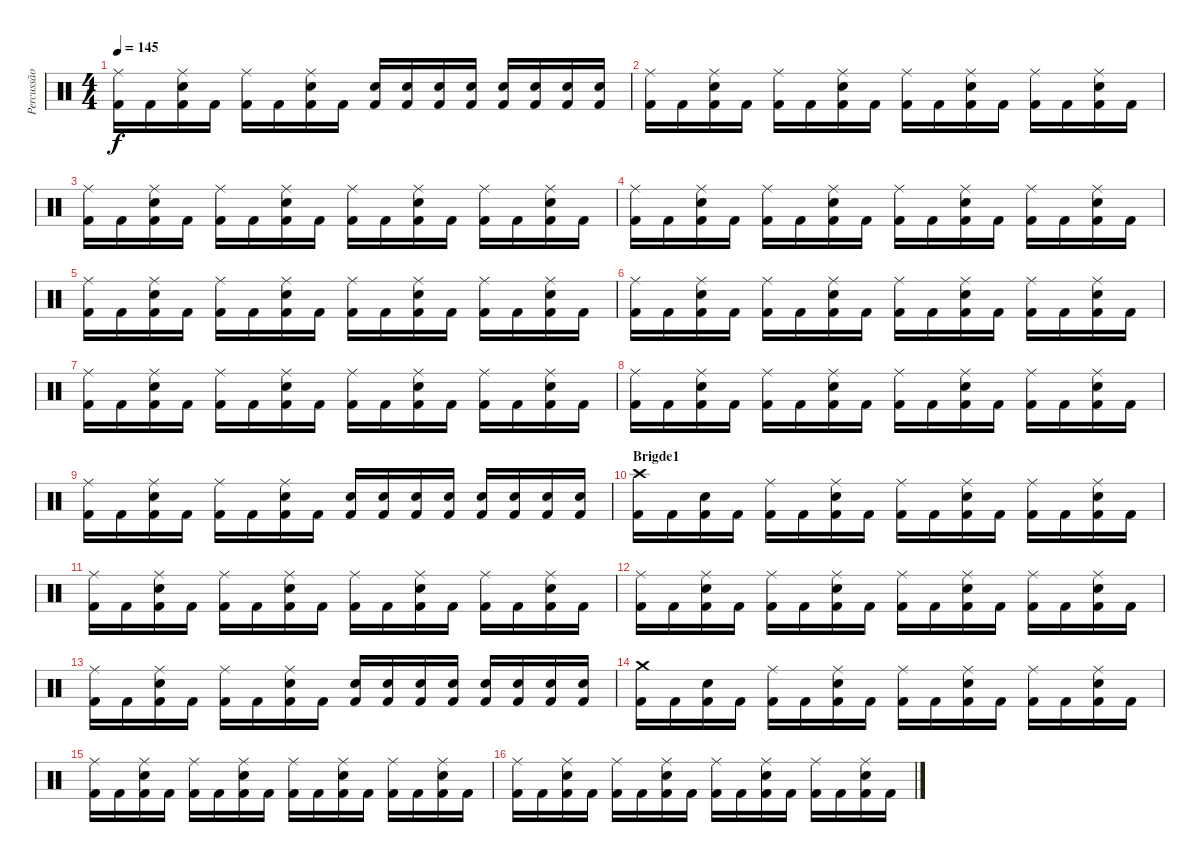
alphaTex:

\track ("Percussão" "Percussão") {instrument percussion}
\staff {score}
\articulation defaults
\ts (4 4)
\tempo 145
\clef neutral
\ks c
("Kick (hit) 2" "Ride (middle)").16{dy f} "Kick (hit) 2".16 ("Kick (hit) 2" "Snare (hit) 2" "Ride (middle)").16 "Kick (hit) 2".16 ("Kick (hit) 2" "Ride (middle)").16 "Kick (hit) 2".16 ("Kick (hit) 2" "Snare (hit) 2" "Ride (middle)").16 "Kick (hit) 2".16 ("Kick (hit) 2" "Snare (hit) 2").16 ("Kick (hit) 2" "Snare (hit) 2").16 ("Kick (hit) 2" "Snare (hit) 2").16 ("Kick (hit) 2" "Snare (hit) 2").16 ("Kick (hit) 2" "Snare (hit) 2").16 ("Kick (hit) 2" "Snare (hit) 2").16 ("Kick (hit) 2" "Snare (hit) 2").16 ("Kick (hit) 2" "Snare (hit) 2").16 |
("Kick (hit) 2" "Ride (middle)").16 "Kick (hit) 2".16 ("Kick (hit) 2" "Snare (hit) 2" "Ride (middle)").16 "Kick (hit) 2".16 ("Kick (hit) 2" "Ride (middle)").16 "Kick (hit) 2".16 ("Kick (hit) 2" "Snare (hit) 2" "Ride (middle)").16 "Kick (hit) 2".16 ("Kick (hit) 2" "Ride (middle)").16 "Kick (hit) 2".16 ("Kick (hit) 2" "Snare (hit) 2" "Ride (middle)").16 "Kick (hit) 2".16 ("Kick (hit) 2" "Ride (middle)").16 "Kick (hit) 2".16 ("Kick (hit) 2" "Snare (hit) 2" "Ride (middle)").16 "Kick (hit) 2".16 |
("Kick (hit) 2" "Ride (middle)").16 "Kick (hit) 2".16 ("Kick (hit) 2" "Snare (hit) 2" "Ride (middle)").16 "Kick (hit) 2".16 ("Kick (hit) 2" "Ride (middle)").16 "Kick (hit) 2".16 ("Kick (hit) 2" "Snare (hit) 2" "Ride (middle)").16 "Kick (hit) 2".16 ("Kick (hit) 2" "Ride (middle)").16 "Kick (hit) 2".16 ("Kick (hit) 2" "Snare (hit) 2" "Ride (middle)").16 "Kick (hit) 2".16 ("Kick (hit) 2" "Ride (middle)").16 "Kick (hit) 2".16 ("Kick (hit) 2" "Snare (hit) 2" "Ride (middle)").16 "Kick (hit) 2".16 |
("Kick (hit) 2" "Ride (middle)").16 "Kick (hit) 2".16 ("Kick (hit) 2" "Snare (hit) 2" "Ride (middle)").16 "Kick (hit) 2".16 ("Kick (hit) 2" "Ride (middle)").16 "Kick (hit) 2".16 ("Kick (hit) 2" "Snare (hit) 2" "Ride (middle)").16 "Kick (hit) 2".16 ("Kick (hit) 2" "Ride (middle)").16 "Kick (hit) 2".16 ("Kick (hit) 2" "Snare (hit) 2" "Ride (middle)").16 "Kick (hit) 2".16 ("Kick (hit) 2" "Ride (middle)").16 "Kick (hit) 2".16 ("Kick (hit) 2" "Snare (hit) 2" "Ride (middle)").16 "Kick (hit) 2".16 |
("Kick (hit) 2" "Ride (middle)").16 "Kick (hit) 2".16 ("Kick (hit) 2" "Snare (hit) 2" "Ride (middle)").16 "Kick (hit) 2".16 ("Kick (hit) 2" "Ride (middle)").16 "Kick (hit) 2".16 ("Kick (hit) 2" "Snare (hit) 2" "Ride (middle)").16 "Kick (hit) 2".16 ("Kick (hit) 2" "Ride (middle)").16 "Kick (hit) 2".16 ("Kick (hit) 2" "Snare (hit) 2" "Ride (middle)").16 "Kick (hit) 2".16 ("Kick (hit) 2" "Ride (middle)").16 "Kick (hit) 2".16 ("Kick (hit) 2" "Snare (hit) 2" "Ride (middle)").16 "Kick (hit) 2".16 |
("Kick (hit) 2" "Ride (middle)").16 "Kick (hit) 2".16 ("Kick (hit) 2" "Snare (hit) 2" "Ride (middle)").16 "Kick (hit) 2".16 ("Kick (hit) 2" "Ride (middle)").16 "Kick (hit) 2".16 ("Kick (hit) 2" "Snare (hit) 2" "Ride (middle)").16 "Kick (hit) 2".16 ("Kick (hit) 2" "Ride (middle)").16 "Kick (hit) 2".16 ("Kick (hit) 2" "Snare (hit) 2" "Ride (middle)").16 "Kick (hit) 2".16 ("Kick (hit) 2" "Ride (middle)").16 "Kick (hit) 2".16 ("Kick (hit) 2" "Snare (hit) 2" "Ride (middle)").16 "Kick (hit) 2".16 |
("Kick (hit) 2" "Ride (middle)").16 "Kick (hit) 2".16 ("Kick (hit) 2" "Snare (hit) 2" "Ride (middle)").16 "Kick (hit) 2".16 ("Kick (hit) 2" "Ride (middle)").16 "Kick (hit) 2".16 ("Kick (hit) 2" "Snare (hit) 2" "Ride (middle)").16 "Kick (hit) 2".16 ("Kick (hit) 2" "Ride (middle)").16 "Kick (hit) 2".16 ("Kick (hit) 2" "Snare (hit) 2" "Ride (middle)").16 "Kick (hit) 2".16 ("Kick (hit) 2" "Ride (middle)").16 "Kick (hit) 2".16 ("Kick (hit) 2" "Snare (hit) 2" "Ride (middle)").16 "Kick (hit) 2".16 |
("Kick (hit) 2" "Ride (middle)").16 "Kick (hit) 2".16 ("Kick (hit) 2" "Snare (hit) 2" "Ride (middle)").16 "Kick (hit) 2".16 ("Kick (hit) 2" "Ride (middle)").16 "Kick (hit) 2".16 ("Kick (hit) 2" "Snare (hit) 2" "Ride (middle)").16 "Kick (hit) 2".16 ("Kick (hit) 2" "Ride (middle)").16 "Kick (hit) 2".16 ("Kick (hit) 2" "Snare (hit) 2" "Ride (middle)").16 "Kick (hit) 2".16 ("Kick (hit) 2" "Ride (middle)").16 "Kick (hit) 2".16 ("Kick (hit) 2" "Snare (hit) 2" "Ride (middle)").16 "Kick (hit) 2".16 |
("Kick (hit) 2" "Ride (middle)").16 "Kick (hit) 2".16 ("Kick (hit) 2" "Snare (hit) 2" "Ride (middle)").16 "Kick (hit) 2".16 ("Kick (hit) 2" "Ride (middle)").16 "Kick (hit) 2".16 ("Kick (hit) 2" "Snare (hit) 2" "Ride (middle)").16 "Kick (hit) 2".16 ("Kick (hit) 2" "Snare (hit) 2").16 ("Kick (hit) 2" "Snare (hit) 2").16 ("Kick (hit) 2" "Snare (hit) 2").16 ("Kick (hit) 2" "Snare (hit) 2").16 ("Kick (hit) 2" "Snare (hit) 2").16 ("Kick (hit) 2" "Snare (hit) 2").16 ("Kick (hit) 2" "Snare (hit) 2").16 ("Kick (hit) 2" "Snare (hit) 2").16 |
\section ("" "Brigde1")
("Kick (hit) 2" "Crash high (hit)").16 "Kick (hit) 2".16 ("Kick (hit) 2" "Snare (hit) 2").16 "Kick (hit) 2".16 ("Kick (hit) 2" "Ride (middle)").16 "Kick (hit) 2".16 ("Kick (hit) 2" "Snare (hit) 2" "Ride (middle)").16 "Kick (hit) 2".16 ("Kick (hit) 2" "Ride (middle)").16 "Kick (hit) 2".16 ("Kick (hit) 2" "Snare (hit) 2" "Ride (middle)").16 "Kick (hit) 2".16 ("Kick (hit) 2" "Ride (middle)").16 "Kick (hit) 2".16 ("Kick (hit) 2" "Snare (hit) 2" "Ride (middle)").16 "Kick (hit) 2".16 |
("Kick (hit) 2" "Ride (middle)").16 "Kick (hit) 2".16 ("Kick (hit) 2" "Snare (hit) 2" "Ride (middle)").16 "Kick (hit) 2".16 ("Kick (hit) 2" "Ride (middle)").16 "Kick (hit) 2".16 ("Kick (hit) 2" "Snare (hit) 2" "Ride (middle)").16 "Kick (hit) 2".16 ("Kick (hit) 2" "Ride (middle)").16 "Kick (hit) 2".16 ("Kick (hit) 2" "Snare (hit) 2" "Ride (middle)").16 "Kick (hit) 2".16 ("Kick (hit) 2" "Ride (middle)").16 "Kick (hit) 2".16 ("Kick (hit) 2" "Snare (hit) 2" "Ride (middle)").16 "Kick (hit) 2".16 |
("Kick (hit) 2" "Ride (middle)").16 "Kick (hit) 2".16 ("Kick (hit) 2" "Snare (hit) 2" "Ride (middle)").16 "Kick (hit) 2".16 ("Kick (hit) 2" "Ride (middle)").16 "Kick (hit) 2".16 ("Kick (hit) 2" "Snare (hit) 2" "Ride (middle)").16 "Kick (hit) 2".16 ("Kick (hit) 2" "Ride (middle)").16 "Kick (hit) 2".16 ("Kick (hit) 2" "Snare (hit) 2" "Ride (middle)").16 "Kick (hit) 2".16 ("Kick (hit) 2" "Ride (middle)").16 "Kick (hit) 2".16 ("Kick (hit) 2" "Snare (hit) 2" "Ride (middle)").16 "Kick (hit) 2".16 |
("Kick (hit) 2" "Ride (middle)").16 "Kick (hit) 2".16 ("Kick (hit) 2" "Snare (hit) 2" "Ride (middle)").16 "Kick (hit) 2".16 ("Kick (hit) 2" "Ride (middle)").16 "Kick (hit) 2".16 ("Kick (hit) 2" "Snare (hit) 2" "Ride (middle)").16 "Kick (hit) 2".16 ("Kick (hit) 2" "Snare (hit) 2").16 ("Kick (hit) 2" "Snare (hit) 2").16 ("Kick (hit) 2" "Snare (hit) 2").16 ("Kick (hit) 2" "Snare (hit) 2").16 ("Kick (hit) 2" "Snare (hit) 2").16 ("Kick (hit) 2" "Snare (hit) 2").16 ("Kick (hit) 2" "Snare (hit) 2").16 ("Kick (hit) 2" "Snare (hit) 2").16 |
("Kick (hit) 2" "Crash medium (hit)").16 "Kick (hit) 2".16 ("Kick (hit) 2" "Snare (hit) 2").16 "Kick (hit) 2".16 ("Kick (hit) 2" "Ride (middle)").16 "Kick (hit) 2".16 ("Kick (hit) 2" "Snare (hit) 2" "Ride (middle)").16 "Kick (hit) 2".16 ("Kick (hit) 2" "Ride (middle)").16 "Kick (hit) 2".16 ("Kick (hit) 2" "Snare (hit) 2" "Ride (middle)").16 "Kick (hit) 2".16 ("Kick (hit) 2" "Ride (middle)").16 "Kick (hit) 2".16 ("Kick (hit) 2" "Snare (hit) 2" "Ride (middle)").16 "Kick (hit) 2".16 |
("Kick (hit) 2" "Ride (middle)").16 "Kick (hit) 2".16 ("Kick (hit) 2" "Snare (hit) 2" "Ride (middle)").16 "Kick (hit) 2".16 ("Kick (hit) 2" "Ride (middle)").16 "Kick (hit) 2".16 ("Kick (hit) 2" "Snare (hit) 2" "Ride (middle)").16 "Kick (hit) 2".16 ("Kick (hit) 2" "Ride (middle)").16 "Kick (hit) 2".16 ("Kick (hit) 2" "Snare (hit) 2" "Ride (middle)").16 "Kick (hit) 2".16 ("Kick (hit) 2" "Ride (middle)").16 "Kick (hit) 2".16 ("Kick (hit) 2" "Snare (hit) 2" "Ride (middle)").16 "Kick (hit) 2".16 |
("Kick (hit) 2" "Ride (middle)").16 "Kick (hit) 2".16 ("Kick (hit) 2" "Snare (hit) 2" "Ride (middle)").16 "Kick (hit) 2".16 ("Kick (hit) 2" "Ride (middle)").16 "Kick (hit) 2".16 ("Kick (hit) 2" "Snare (hit) 2" "Ride (middle)").16 "Kick (hit) 2".16 ("Kick (hit) 2" "Ride (middle)").16 "Kick (hit) 2".16 ("Kick (hit) 2" "Snare (hit) 2" "Ride (middle)").16 "Kick (hit) 2".16 ("Kick (hit) 2" "Ride (middle)").16 "Kick (hit) 2".16 ("Kick (hit) 2" "Snare (hit) 2" "Ride (middle)").16 "Kick (hit) 2".16
